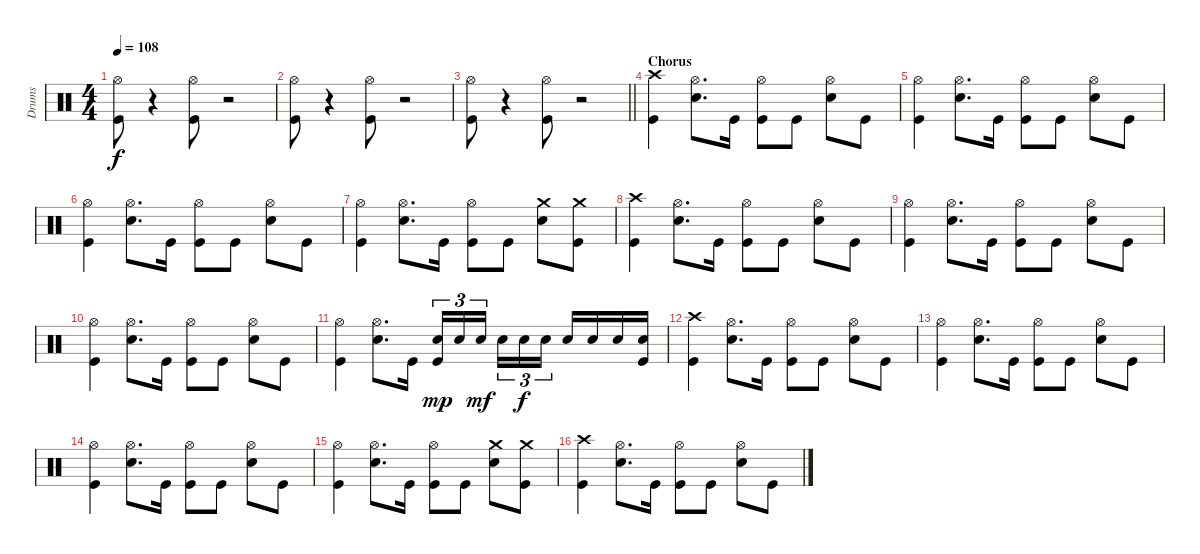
\track ("Drums" "Drums") {instrument percussion}
\staff {score}
\articulation defaults
\ts (4 4)
\tempo 108
\clef neutral
\ks c
("Hi-Hat (open)" "Kick (hit)").8{dy f} r.4 ("Hi-Hat (open)" "Kick (hit)").8 r.2 |
("Hi-Hat (open)" "Kick (hit)").8 r.4 ("Hi-Hat (open)" "Kick (hit)").8 r.2 |
\barLineRight lightlight
("Hi-Hat (open)" "Kick (hit)").8 r.4 ("Hi-Hat (open)" "Kick (hit)").8 r.2 |
\section ("" "Chorus")
("Crash high (hit)" "Kick (hit)").4 ("Hi-Hat (open)" "Electric Snare (hit)").8{d} "Kick (hit)".16 ("Hi-Hat (open)" "Kick (hit)").8 "Kick (hit)".8 ("Hi-Hat (open)" "Electric Snare (hit)").8 "Kick (hit)".8 |
("Hi-Hat (open)" "Kick (hit)").4 ("Hi-Hat (open)" "Electric Snare (hit)").8{d} "Kick (hit)".16 ("Hi-Hat (open)" "Kick (hit)").8 "Kick (hit)".8 ("Hi-Hat (open)" "Electric Snare (hit)").8 "Kick (hit)".8 |
("Hi-Hat (open)" "Kick (hit)").4 ("Hi-Hat (open)" "Electric Snare (hit)").8{d} "Kick (hit)".16 ("Hi-Hat (open)" "Kick (hit)").8 "Kick (hit)".8 ("Hi-Hat (open)" "Electric Snare (hit)").8 "Kick (hit)".8 |
("Hi-Hat (open)" "Kick (hit)").4 ("Hi-Hat (open)" "Electric Snare (hit)").8{d} "Kick (hit)".16 ("Hi-Hat (open)" "Kick (hit)").8 "Kick (hit)".8 ("Crash medium (hit)" "Electric Snare (hit)").8 ("Crash medium (hit)" "Kick (hit)").8 |
("Crash high (hit)" "Kick (hit)").4 ("Hi-Hat (open)" "Electric Snare (hit)").8{d} "Kick (hit)".16 ("Hi-Hat (open)" "Kick (hit)").8 "Kick (hit)".8 ("Hi-Hat (open)" "Electric Snare (hit)").8 "Kick (hit)".8 |
("Hi-Hat (open)" "Kick (hit)").4 ("Hi-Hat (open)" "Electric Snare (hit)").8{d} "Kick (hit)".16 ("Hi-Hat (open)" "Kick (hit)").8 "Kick (hit)".8 ("Hi-Hat (open)" "Electric Snare (hit)").8 "Kick (hit)".8 |
("Hi-Hat (open)" "Kick (hit)").4 ("Hi-Hat (open)" "Electric Snare (hit)").8{d} "Kick (hit)".16 ("Hi-Hat (open)" "Kick (hit)").8 "Kick (hit)".8 ("Hi-Hat (open)" "Electric Snare (hit)").8 "Kick (hit)".8 |
("Hi-Hat (open)" "Kick (hit)").4 ("Hi-Hat (open)" "Electric Snare (hit)").8{d} "Kick (hit)".16 ("Electric Snare (hit)" "Kick (hit)").16{tu (3 2) dy mp} "Electric Snare (hit)".16{tu (3 2)} "Electric Snare (hit)".16{tu (3 2) dy mf beam splitsecondary} "Electric Snare (hit)".16{tu (3 2)} "Electric Snare (hit)".16{tu (3 2) dy f} "Electric Snare (hit)".16{tu (3 2)} "Electric Snare (hit)".16 "Electric Snare (hit)".16 "Electric Snare (hit)".16 ("Electric Snare (hit)" "Kick (hit)").16 |
("Crash high (hit)" "Kick (hit)").4 ("Hi-Hat (open)" "Electric Snare (hit)").8{d} "Kick (hit)".16 ("Hi-Hat (open)" "Kick (hit)").8 "Kick (hit)".8 ("Hi-Hat (open)" "Electric Snare (hit)").8 "Kick (hit)".8 |
("Hi-Hat (open)" "Kick (hit)").4 ("Hi-Hat (open)" "Electric Snare (hit)").8{d} "Kick (hit)".16 ("Hi-Hat (open)" "Kick (hit)").8 "Kick (hit)".8 ("Hi-Hat (open)" "Electric Snare (hit)").8 "Kick (hit)".8 |
("Hi-Hat (open)" "Kick (hit)").4 ("Hi-Hat (open)" "Electric Snare (hit)").8{d} "Kick (hit)".16 ("Hi-Hat (open)" "Kick (hit)").8 "Kick (hit)".8 ("Hi-Hat (open)" "Electric Snare (hit)").8 "Kick (hit)".8 |
("Hi-Hat (open)" "Kick (hit)").4 ("Hi-Hat (open)" "Electric Snare (hit)").8{d} "Kick (hit)".16 ("Hi-Hat (open)" "Kick (hit)").8 "Kick (hit)".8 ("Crash medium (hit)" "Electric Snare (hit)").8 ("Crash medium (hit)" "Kick (hit)").8 |
("Crash high (hit)" "Kick (hit)").4 ("Hi-Hat (open)" "Electric Snare (hit)").8{d} "Kick (hit)".16 ("Hi-Hat (open)" "Kick (hit)").8 "Kick (hit)".8 ("Hi-Hat (open)" "Electric Snare (hit)").8 "Kick (hit)".8
